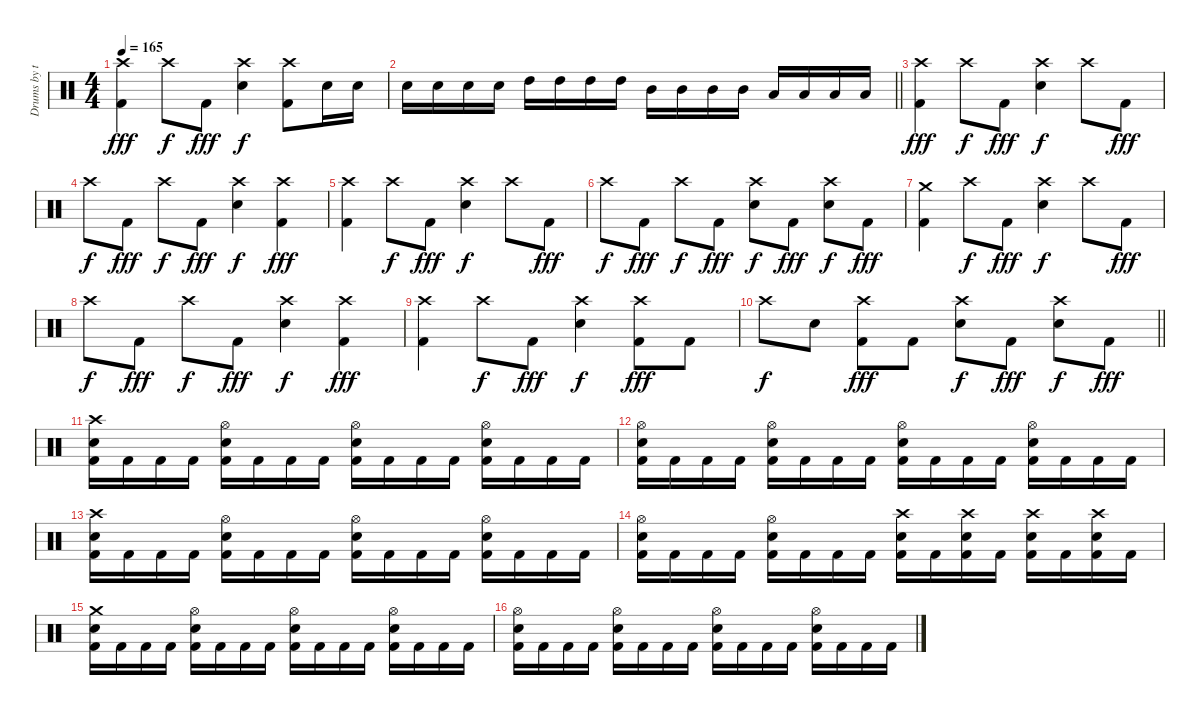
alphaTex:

\track ("Drums by terryn0" "Drums by t") {instrument percussion}
\staff {score}
\articulation defaults
\ts (4 4)
\tempo 165
\clef neutral
\ks c
("Crash high (hit)" "Kick (hit) 2").4{dy fff} "Crash high (hit)".8{dy f} "Kick (hit) 2".8{dy fff} ("Crash high (hit)" "Electric Snare (hit)").4{dy f} ("Crash high (hit)" "Kick (hit) 2").8 "Electric Snare (hit)".16 "Electric Snare (hit)".16 |
\barLineRight lightlight "Electric Snare (hit)".16 "Electric Snare (hit)".16 "Electric Snare (hit)".16 "Electric Snare (hit)".16 "High Tom (hit)".16 "High Tom (hit)".16 "High Tom (hit)".16 "High Tom (hit)".16 "Mid Tom (hit)".16 "Mid Tom (hit)".16 "Mid Tom (hit)".16 "Mid Tom (hit)".16 "Low Tom (hit)".16 "Low Tom (hit)".16 "Low Tom (hit)".16 "Low Tom (hit)".16
|
("Crash high (hit)" "Kick (hit) 2").4{dy fff} "Crash high (hit)".8{dy f} "Kick (hit) 2".8{dy fff} ("Crash high (hit)" "Electric Snare (hit)").4{dy f} "Crash high (hit)".8 "Kick (hit) 2".8{dy fff} |
"Crash high (hit)".8{dy f} "Kick (hit) 2".8{dy fff} "Crash high (hit)".8{dy f} "Kick (hit) 2".8{dy fff} ("Crash high (hit)" "Electric Snare (hit)").4{dy f} ("Crash high (hit)" "Kick (hit) 2").4{dy fff} |
("Crash high (hit)" "Kick (hit) 2").4 "Crash high (hit)".8{dy f} "Kick (hit) 2".8{dy fff} ("Crash high (hit)" "Electric Snare (hit)").4{dy f} "Crash high (hit)".8 "Kick (hit) 2".8{dy fff} |
"Crash high (hit)".8{dy f} "Kick (hit) 2".8{dy fff} "Crash high (hit)".8{dy f} "Kick (hit) 2".8{dy fff} ("Crash high (hit)" "Electric Snare (hit)").8{dy f} "Kick (hit) 2".8{dy fff} ("Crash high (hit)" "Electric Snare (hit)").8{dy f} "Kick (hit) 2".8{dy fff} |
("Crash medium (hit)" "Kick (hit) 2").4 "Crash high (hit)".8{dy f} "Kick (hit) 2".8{dy fff} ("Crash high (hit)" "Electric Snare (hit)").4{dy f} "Crash high (hit)".8 "Kick (hit) 2".8{dy fff} |
"Crash high (hit)".8{dy f} "Kick (hit) 2".8{dy fff} "Crash high (hit)".8{dy f} "Kick (hit) 2".8{dy fff} ("Crash high (hit)" "Electric Snare (hit)").4{dy f} ("Crash high (hit)" "Kick (hit) 2").4{dy fff} |
("Crash high (hit)" "Kick (hit) 2").4 "Crash high (hit)".8{dy f} "Kick (hit) 2".8{dy fff} ("Crash high (hit)" "Electric Snare (hit)").4{dy f} ("Crash high (hit)" "Kick (hit) 2").8{dy fff} "Kick (hit) 2".8 |
\barLineRight lightlight "Crash high (hit)".8{dy f} "Electric Snare (hit)".8
("Crash high (hit)" "Kick (hit) 2").8{dy fff} "Kick (hit) 2".8 ("Crash high (hit)" "Electric Snare (hit)").8{dy f} "Kick (hit) 2".8{dy fff} ("Crash high (hit)" "Electric Snare (hit)").8{dy f} "Kick (hit) 2".8{dy fff} |
("Crash high (hit)" "Electric Snare (hit)" "Kick (hit) 2").16 "Kick (hit) 2".16 "Kick (hit) 2".16 "Kick (hit) 2".16 ("Hi-Hat (open)" "Electric Snare (hit)" "Kick (hit) 2").16 "Kick (hit) 2".16 "Kick (hit) 2".16 "Kick (hit) 2".16 ("Hi-Hat (open)" "Electric Snare (hit)" "Kick (hit) 2").16 "Kick (hit) 2".16 "Kick (hit) 2".16 "Kick (hit) 2".16 ("Hi-Hat (open)" "Electric Snare (hit)" "Kick (hit) 2").16 "Kick (hit) 2".16 "Kick (hit) 2".16 "Kick (hit) 2".16 |
("Hi-Hat (open)" "Electric Snare (hit)" "Kick (hit) 2").16 "Kick (hit) 2".16 "Kick (hit) 2".16 "Kick (hit) 2".16 ("Hi-Hat (open)" "Electric Snare (hit)" "Kick (hit) 2").16 "Kick (hit) 2".16 "Kick (hit) 2".16 "Kick (hit) 2".16 ("Hi-Hat (open)" "Electric Snare (hit)" "Kick (hit) 2").16 "Kick (hit) 2".16 "Kick (hit) 2".16 "Kick (hit) 2".16 ("Hi-Hat (open)" "Electric Snare (hit)" "Kick (hit) 2").16 "Kick (hit) 2".16 "Kick (hit) 2".16 "Kick (hit) 2".16 |
("Crash high (hit)" "Electric Snare (hit)" "Kick (hit) 2").16 "Kick (hit) 2".16 "Kick (hit) 2".16 "Kick (hit) 2".16 ("Hi-Hat (open)" "Electric Snare (hit)" "Kick (hit) 2").16 "Kick (hit) 2".16 "Kick (hit) 2".16 "Kick (hit) 2".16 ("Hi-Hat (open)" "Electric Snare (hit)" "Kick (hit) 2").16 "Kick (hit) 2".16 "Kick (hit) 2".16 "Kick (hit) 2".16 ("Hi-Hat (open)" "Electric Snare (hit)" "Kick (hit) 2").16 "Kick (hit) 2".16 "Kick (hit) 2".16 "Kick (hit) 2".16 |
("Hi-Hat (open)" "Electric Snare (hit)" "Kick (hit) 2").16 "Kick (hit) 2".16 "Kick (hit) 2".16 "Kick (hit) 2".16 ("Hi-Hat (open)" "Electric Snare (hit)" "Kick (hit) 2").16 "Kick (hit) 2".16 "Kick (hit) 2".16 "Kick (hit) 2".16 ("Crash high (hit)" "Electric Snare (hit)" "Kick (hit) 2").16 "Kick (hit) 2".16 ("Crash high (hit)" "Electric Snare (hit)" "Kick (hit) 2").16 "Kick (hit) 2".16 ("Crash high (hit)" "Electric Snare (hit)" "Kick (hit) 2").16 "Kick (hit) 2".16 ("Crash high (hit)" "Electric Snare (hit)" "Kick (hit) 2").16 "Kick (hit) 2".16 |
("Crash medium (hit)" "Electric Snare (hit)" "Kick (hit) 2").16 "Kick (hit) 2".16 "Kick (hit) 2".16 "Kick (hit) 2".16 ("Hi-Hat (open)" "Electric Snare (hit)" "Kick (hit) 2").16 "Kick (hit) 2".16 "Kick (hit) 2".16 "Kick (hit) 2".16 ("Hi-Hat (open)" "Electric Snare (hit)" "Kick (hit) 2").16 "Kick (hit) 2".16 "Kick (hit) 2".16 "Kick (hit) 2".16 ("Hi-Hat (open)" "Electric Snare (hit)" "Kick (hit) 2").16 "Kick (hit) 2".16 "Kick (hit) 2".16 "Kick (hit) 2".16 |
("Hi-Hat (open)" "Electric Snare (hit)" "Kick (hit) 2").16 "Kick (hit) 2".16 "Kick (hit) 2".16 "Kick (hit) 2".16 ("Hi-Hat (open)" "Electric Snare (hit)" "Kick (hit) 2").16 "Kick (hit) 2".16 "Kick (hit) 2".16 "Kick (hit) 2".16 ("Hi-Hat (open)" "Electric Snare (hit)" "Kick (hit) 2").16 "Kick (hit) 2".16 "Kick (hit) 2".16 "Kick (hit) 2".16 ("Hi-Hat (open)" "Electric Snare (hit)" "Kick (hit) 2").16 "Kick (hit) 2".16 "Kick (hit) 2".16 "Kick (hit) 2".16
